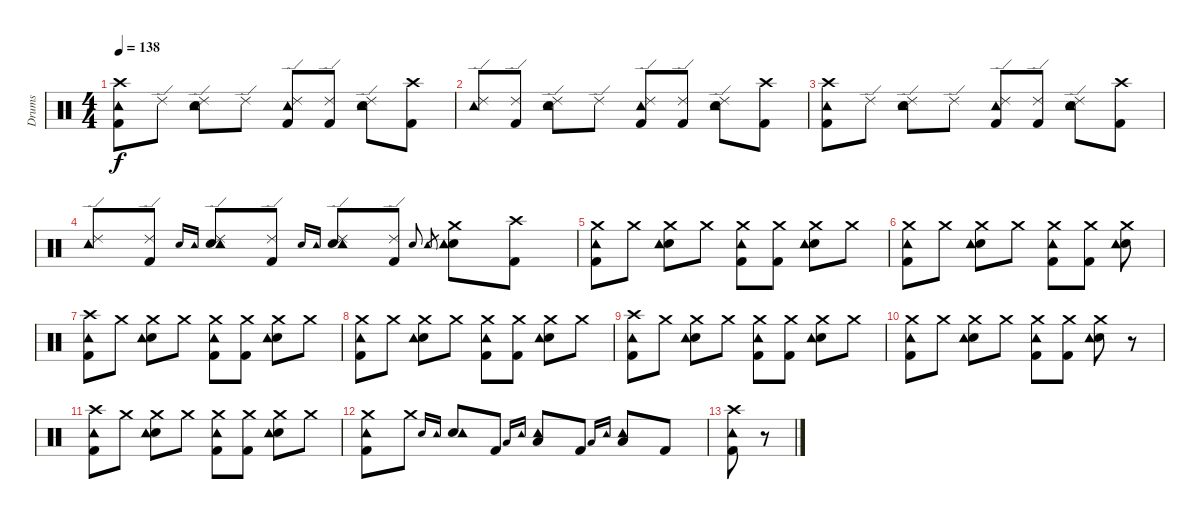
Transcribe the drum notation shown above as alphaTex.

\track ("Drums" "Drums") {instrument percussion}
\staff {score}
\articulation defaults
\ts (4 4)
\tempo 138
\clef neutral
\ks c
("Crash high (hit)" "Kick (hit) 2" "Tambourine (hit)").8{dy f} "Ride (edge) 2".8 ("Ride (edge) 2" "Electric Snare (hit)" "Tambourine (hit)").8 "Ride (edge) 2".8 ("Ride (edge) 2" "Kick (hit) 2" "Tambourine (hit)").8 ("Ride (edge) 2" "Kick (hit) 2").8 ("Ride (edge) 2" "Electric Snare (hit)" "Tambourine (hit)").8 ("Crash high (hit)" "Kick (hit) 2").8 |
("Ride (edge) 2" "Tambourine (hit)").8 ("Ride (edge) 2" "Kick (hit) 2").8 ("Ride (edge) 2" "Electric Snare (hit)" "Tambourine (hit)").8 "Ride (edge) 2".8 ("Ride (edge) 2" "Kick (hit) 2" "Tambourine (hit)").8 ("Ride (edge) 2" "Kick (hit) 2").8 ("Ride (edge) 2" "Electric Snare (hit)" "Tambourine (hit)").8 ("Crash high (hit)" "Kick (hit) 2").8 |
("Crash high (hit)" "Kick (hit) 2" "Tambourine (hit)").8 "Ride (edge) 2".8 ("Ride (edge) 2" "Electric Snare (hit)" "Tambourine (hit)").8 "Ride (edge) 2".8 ("Ride (edge) 2" "Kick (hit) 2" "Tambourine (hit)").8 ("Ride (edge) 2" "Kick (hit) 2").8 ("Ride (edge) 2" "Electric Snare (hit)" "Tambourine (hit)").8 ("Crash high (hit)" "Kick (hit) 2").8 |
("Ride (edge) 2" "Tambourine (hit)").8 ("Ride (edge) 2" "Kick (hit) 2").8 "Electric Snare (hit)".16{gr onbeat} "Tambourine (hit)".16{gr onbeat} ("Ride (edge) 2" "Electric Snare (hit)" "Tambourine (hit)").8 ("Ride (edge) 2" "Kick (hit) 2").8 "Electric Snare (hit)".16{gr onbeat} "Tambourine (hit)".16{gr onbeat} ("Ride (edge) 2" "Electric Snare (hit)" "Tambourine (hit)").8 ("Ride (edge) 2" "Kick (hit) 2").8 "Electric Snare (hit)".16{gr onbeat} "Tambourine (hit)".16{gr} ("Crash medium (hit)" "Electric Snare (hit)" "Tambourine (hit)").8 ("Crash high (hit)" "Kick (hit) 2").8 |
("Crash medium (hit)" "Kick (hit) 2" "Tambourine (hit)").8 "Crash medium (hit)".8 ("Crash medium (hit)" "Electric Snare (hit)" "Tambourine (hit)").8 "Crash medium (hit)".8 ("Crash medium (hit)" "Kick (hit) 2" "Tambourine (hit)").8 ("Crash medium (hit)" "Kick (hit) 2").8 ("Crash medium (hit)" "Electric Snare (hit)" "Tambourine (hit)").8 "Crash medium (hit)".8 |
("Crash medium (hit)" "Kick (hit) 2" "Tambourine (hit)").8 "Crash medium (hit)".8 ("Crash medium (hit)" "Electric Snare (hit)" "Tambourine (hit)").8 "Crash medium (hit)".8 ("Crash medium (hit)" "Kick (hit) 2" "Tambourine (hit)").8 ("Crash medium (hit)" "Kick (hit) 2").8 ("Crash medium (hit)" "Electric Snare (hit)" "Tambourine (hit)").8 |
("Crash high (hit)" "Kick (hit) 2" "Tambourine (hit)").8 "Crash medium (hit)".8 ("Crash medium (hit)" "Electric Snare (hit)" "Tambourine (hit)").8 "Crash medium (hit)".8 ("Crash medium (hit)" "Kick (hit) 2" "Tambourine (hit)").8 ("Crash medium (hit)" "Kick (hit) 2").8 ("Crash medium (hit)" "Electric Snare (hit)" "Tambourine (hit)").8 "Crash medium (hit)".8 |
("Crash medium (hit)" "Kick (hit) 2" "Tambourine (hit)").8 "Crash medium (hit)".8 ("Crash medium (hit)" "Electric Snare (hit)" "Tambourine (hit)").8 "Crash medium (hit)".8 ("Crash medium (hit)" "Kick (hit) 2" "Tambourine (hit)").8 ("Crash medium (hit)" "Kick (hit) 2").8 ("Crash medium (hit)" "Electric Snare (hit)" "Tambourine (hit)").8 "Crash medium (hit)".8 |
("Crash high (hit)" "Kick (hit) 2" "Tambourine (hit)").8 "Crash medium (hit)".8 ("Crash medium (hit)" "Electric Snare (hit)" "Tambourine (hit)").8 "Crash medium (hit)".8 ("Crash medium (hit)" "Kick (hit) 2" "Tambourine (hit)").8 ("Crash medium (hit)" "Kick (hit) 2").8 ("Crash medium (hit)" "Electric Snare (hit)" "Tambourine (hit)").8 "Crash medium (hit)".8 |
("Crash medium (hit)" "Kick (hit) 2" "Tambourine (hit)").8 "Crash medium (hit)".8 ("Crash medium (hit)" "Electric Snare (hit)" "Tambourine (hit)").8 "Crash medium (hit)".8 ("Crash medium (hit)" "Kick (hit) 2" "Tambourine (hit)").8 ("Crash medium (hit)" "Kick (hit) 2").8 ("Crash medium (hit)" "Electric Snare (hit)" "Tambourine (hit)").8 r.8 |
("Crash high (hit)" "Kick (hit) 2" "Tambourine (hit)").8 "Crash medium (hit)".8 ("Crash medium (hit)" "Electric Snare (hit)" "Tambourine (hit)").8 "Crash medium (hit)".8 ("Crash medium (hit)" "Kick (hit) 2" "Tambourine (hit)").8 ("Crash medium (hit)" "Kick (hit) 2").8 ("Crash medium (hit)" "Electric Snare (hit)" "Tambourine (hit)").8 "Crash medium (hit)".8 |
("Crash medium (hit)" "Kick (hit) 2" "Tambourine (hit)").8 "Crash medium (hit)".8 "Electric Snare (hit)".16{gr onbeat} "Tambourine (hit)".16{gr onbeat} ("Electric Snare (hit)" "Tambourine (hit)").8 "Kick (hit) 2".8 "Low Tom (hit)".16{gr onbeat} "Tambourine (hit)".16{gr onbeat} ("Low Tom (hit)" "Tambourine (hit)").8 "Kick (hit) 2".8 "Low Floor Tom (hit)".16{gr onbeat} "Tambourine (hit)".16{gr onbeat} ("Low Floor Tom (hit)" "Tambourine (hit)").8 "Kick (hit) 2".8 |
("Crash high (hit)" "Kick (hit) 2" "Tambourine (hit)").8 r.8
